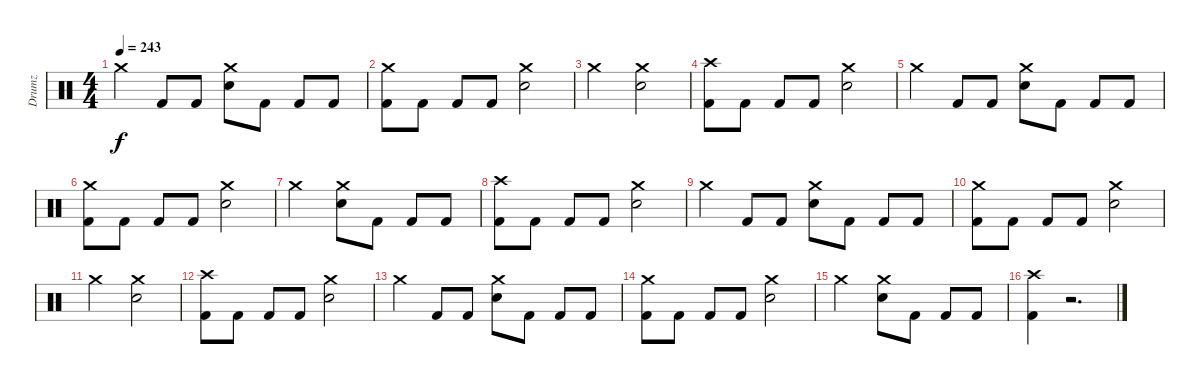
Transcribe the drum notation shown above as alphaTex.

\track ("Drumz" "Drumz") {instrument percussion}
\staff {score}
\articulation defaults
\ts (4 4)
\tempo 243
\clef neutral
\ks c "Crash medium (hit)".4{dy f} "Kick (hit) 2".8 "Kick (hit) 2".8
("Crash medium (hit)" "Electric Snare (hit)").8 "Kick (hit) 2".8 "Kick (hit) 2".8 "Kick (hit) 2".8 |
("Crash medium (hit)" "Kick (hit) 2").8 "Kick (hit) 2".8 "Kick (hit) 2".8 "Kick (hit) 2".8 ("Crash medium (hit)" "Electric Snare (hit)").2 |
"Crash medium (hit)".2 ("Crash medium (hit)" "Electric Snare (hit)").2 |
("Crash high (hit)" "Kick (hit) 2").8 "Kick (hit) 2".8 "Kick (hit) 2".8 "Kick (hit) 2".8 ("Crash medium (hit)" "Electric Snare (hit)").2 |
"Crash medium (hit)".4 "Kick (hit) 2".8 "Kick (hit) 2".8 ("Crash medium (hit)" "Electric Snare (hit)").8 "Kick (hit) 2".8 "Kick (hit) 2".8 "Kick (hit) 2".8 |
("Crash medium (hit)" "Kick (hit) 2").8 "Kick (hit) 2".8 "Kick (hit) 2".8 "Kick (hit) 2".8 ("Crash medium (hit)" "Electric Snare (hit)").2 |
"Crash medium (hit)".2 ("Crash medium (hit)" "Electric Snare (hit)").8 "Kick (hit) 2".8 "Kick (hit) 2".8 "Kick (hit) 2".8 |
("Crash high (hit)" "Kick (hit) 2").8 "Kick (hit) 2".8 "Kick (hit) 2".8 "Kick (hit) 2".8 ("Crash medium (hit)" "Electric Snare (hit)").2 |
"Crash medium (hit)".4 "Kick (hit) 2".8 "Kick (hit) 2".8 ("Crash medium (hit)" "Electric Snare (hit)").8 "Kick (hit) 2".8 "Kick (hit) 2".8 "Kick (hit) 2".8 |
("Crash medium (hit)" "Kick (hit) 2").8 "Kick (hit) 2".8 "Kick (hit) 2".8 "Kick (hit) 2".8 ("Crash medium (hit)" "Electric Snare (hit)").2 |
"Crash medium (hit)".2 ("Crash medium (hit)" "Electric Snare (hit)").2 |
("Crash high (hit)" "Kick (hit) 2").8 "Kick (hit) 2".8 "Kick (hit) 2".8 "Kick (hit) 2".8 ("Crash medium (hit)" "Electric Snare (hit)").2 |
"Crash medium (hit)".4 "Kick (hit) 2".8 "Kick (hit) 2".8 ("Crash medium (hit)" "Electric Snare (hit)").8 "Kick (hit) 2".8 "Kick (hit) 2".8 "Kick (hit) 2".8 |
("Crash medium (hit)" "Kick (hit) 2").8 "Kick (hit) 2".8 "Kick (hit) 2".8 "Kick (hit) 2".8 ("Crash medium (hit)" "Electric Snare (hit)").2 |
"Crash medium (hit)".2 ("Crash medium (hit)" "Electric Snare (hit)").8 "Kick (hit) 2".8 "Kick (hit) 2".8 "Kick (hit) 2".8 |
("Crash high (hit)" "Kick (hit) 2").4 r.2{d volume 0}
